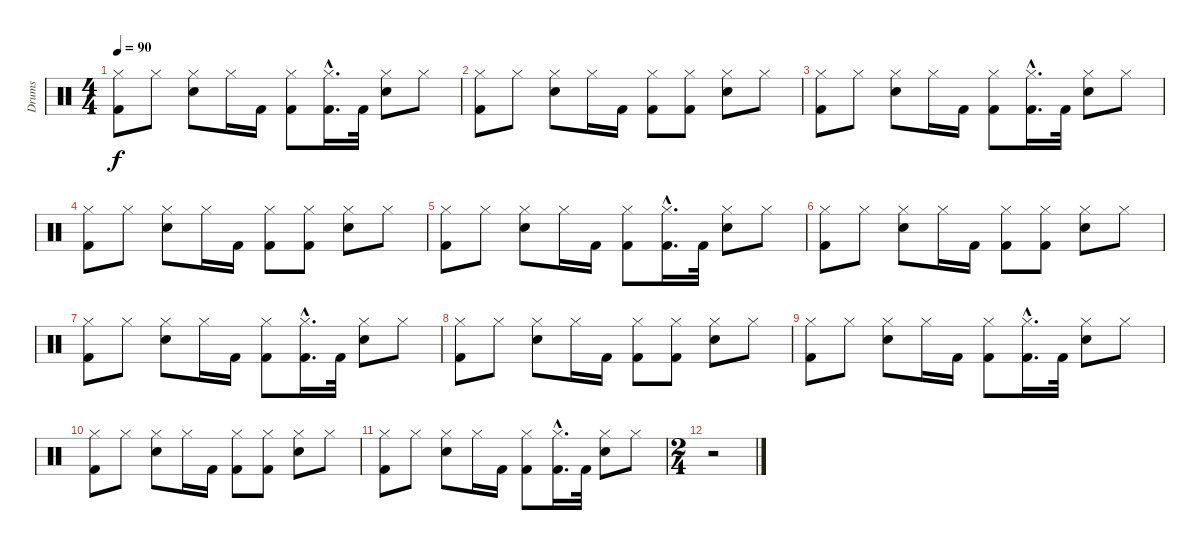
\track ("Drums" "Drums") {instrument percussion}
\staff {score}
\articulation defaults
\ts (4 4)
\tempo 90
\clef neutral
\ks c
("Hi-Hat (closed)" "Kick (hit) 2").8{dy f} "Hi-Hat (closed)".8 ("Hi-Hat (closed)" "Electric Snare (hit)").8 "Hi-Hat (closed)".16 "Kick (hit) 2".16 ("Hi-Hat (closed)" "Kick (hit) 2").8 ("Hi-Hat (closed)"{hac} "Kick (hit) 2"{hac}).16{d} "Kick (hit) 2".32 ("Hi-Hat (closed)" "Electric Snare (hit)").8 "Hi-Hat (closed)".8 |
("Hi-Hat (closed)" "Kick (hit) 2").8 "Hi-Hat (closed)".8 ("Hi-Hat (closed)" "Electric Snare (hit)").8 "Hi-Hat (closed)".16 "Kick (hit) 2".16 ("Hi-Hat (closed)" "Kick (hit) 2").8 ("Hi-Hat (closed)" "Kick (hit) 2").8 ("Hi-Hat (closed)" "Electric Snare (hit)").8 "Hi-Hat (closed)".8 |
("Hi-Hat (closed)" "Kick (hit) 2").8 "Hi-Hat (closed)".8 ("Hi-Hat (closed)" "Electric Snare (hit)").8 "Hi-Hat (closed)".16 "Kick (hit) 2".16 ("Hi-Hat (closed)" "Kick (hit) 2").8 ("Hi-Hat (closed)"{hac} "Kick (hit) 2"{hac}).16{d} "Kick (hit) 2".32 ("Hi-Hat (closed)" "Electric Snare (hit)").8 "Hi-Hat (closed)".8 |
("Hi-Hat (closed)" "Kick (hit) 2").8 "Hi-Hat (closed)".8 ("Hi-Hat (closed)" "Electric Snare (hit)").8 "Hi-Hat (closed)".16 "Kick (hit) 2".16 ("Hi-Hat (closed)" "Kick (hit) 2").8 ("Hi-Hat (closed)" "Kick (hit) 2").8 ("Hi-Hat (closed)" "Electric Snare (hit)").8 "Hi-Hat (closed)".8 |
("Hi-Hat (closed)" "Kick (hit) 2").8 "Hi-Hat (closed)".8 ("Hi-Hat (closed)" "Electric Snare (hit)").8 "Hi-Hat (closed)".16 "Kick (hit) 2".16 ("Hi-Hat (closed)" "Kick (hit) 2").8 ("Hi-Hat (closed)"{hac} "Kick (hit) 2"{hac}).16{d} "Kick (hit) 2".32 ("Hi-Hat (closed)" "Electric Snare (hit)").8 "Hi-Hat (closed)".8 |
("Hi-Hat (closed)" "Kick (hit) 2").8 "Hi-Hat (closed)".8 ("Hi-Hat (closed)" "Electric Snare (hit)").8 "Hi-Hat (closed)".16 "Kick (hit) 2".16 ("Hi-Hat (closed)" "Kick (hit) 2").8 ("Hi-Hat (closed)" "Kick (hit) 2").8 ("Hi-Hat (closed)" "Electric Snare (hit)").8 "Hi-Hat (closed)".8 |
("Hi-Hat (closed)" "Kick (hit) 2").8 "Hi-Hat (closed)".8 ("Hi-Hat (closed)" "Electric Snare (hit)").8 "Hi-Hat (closed)".16 "Kick (hit) 2".16 ("Hi-Hat (closed)" "Kick (hit) 2").8 ("Hi-Hat (closed)"{hac} "Kick (hit) 2"{hac}).16{d} "Kick (hit) 2".32 ("Hi-Hat (closed)" "Electric Snare (hit)").8 "Hi-Hat (closed)".8 |
("Hi-Hat (closed)" "Kick (hit) 2").8 "Hi-Hat (closed)".8 ("Hi-Hat (closed)" "Electric Snare (hit)").8 "Hi-Hat (closed)".16 "Kick (hit) 2".16 ("Hi-Hat (closed)" "Kick (hit) 2").8 ("Hi-Hat (closed)" "Kick (hit) 2").8 ("Hi-Hat (closed)" "Electric Snare (hit)").8 "Hi-Hat (closed)".8 |
("Hi-Hat (closed)" "Kick (hit) 2").8 "Hi-Hat (closed)".8 ("Hi-Hat (closed)" "Electric Snare (hit)").8 "Hi-Hat (closed)".16 "Kick (hit) 2".16 ("Hi-Hat (closed)" "Kick (hit) 2").8 ("Hi-Hat (closed)"{hac} "Kick (hit) 2"{hac}).16{d} "Kick (hit) 2".32 ("Hi-Hat (closed)" "Electric Snare (hit)").8 "Hi-Hat (closed)".8 |
("Hi-Hat (closed)" "Kick (hit) 2").8 "Hi-Hat (closed)".8 ("Hi-Hat (closed)" "Electric Snare (hit)").8 "Hi-Hat (closed)".16 "Kick (hit) 2".16 ("Hi-Hat (closed)" "Kick (hit) 2").8 ("Hi-Hat (closed)" "Kick (hit) 2").8 ("Hi-Hat (closed)" "Electric Snare (hit)").8 "Hi-Hat (closed)".8 |
("Hi-Hat (closed)" "Kick (hit) 2").8 "Hi-Hat (closed)".8 ("Hi-Hat (closed)" "Electric Snare (hit)").8 "Hi-Hat (closed)".16 "Kick (hit) 2".16 ("Hi-Hat (closed)" "Kick (hit) 2").8 ("Hi-Hat (closed)"{hac} "Kick (hit) 2"{hac}).16{d} "Kick (hit) 2".32 ("Hi-Hat (closed)" "Electric Snare (hit)").8 "Hi-Hat (closed)".8 |
\ts (2 4)
r.2
